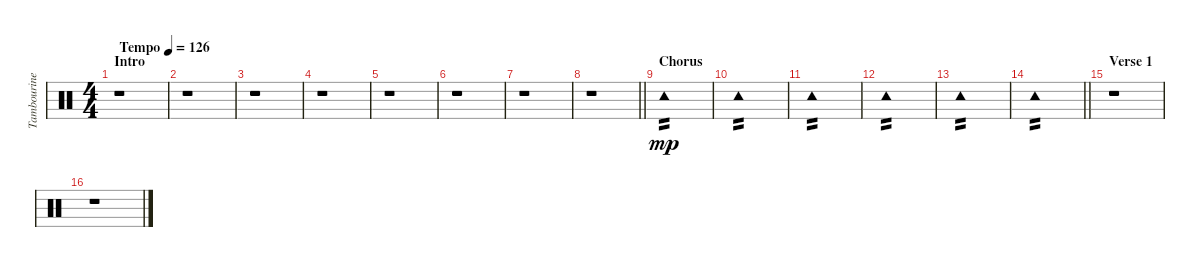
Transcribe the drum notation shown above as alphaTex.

\track ("Tambourine" "Tambourine") {instrument percussion}
\staff {score}
\articulation defaults
\ts (4 4)
\section ("" "Intro")
\tempo (126 "Tempo")
\clef neutral
\ks c
r.1{dy mp} |
r.1 |
r.1 |
r.1 |
r.1 |
r.1 |
r.1 |
\barLineRight lightlight
r.1 |
\section ("" "Chorus")
"Tambourine (hit)".1{tp 2} |
"Tambourine (hit)".1{tp 2} |
"Tambourine (hit)".1{tp 2} |
"Tambourine (hit)".1{tp 2} |
"Tambourine (hit)".1{tp 2} |
\barLineRight lightlight "Tambourine (hit)".1{tp 2}
|
\section ("" "Verse 1")
r.1 |
r.1
